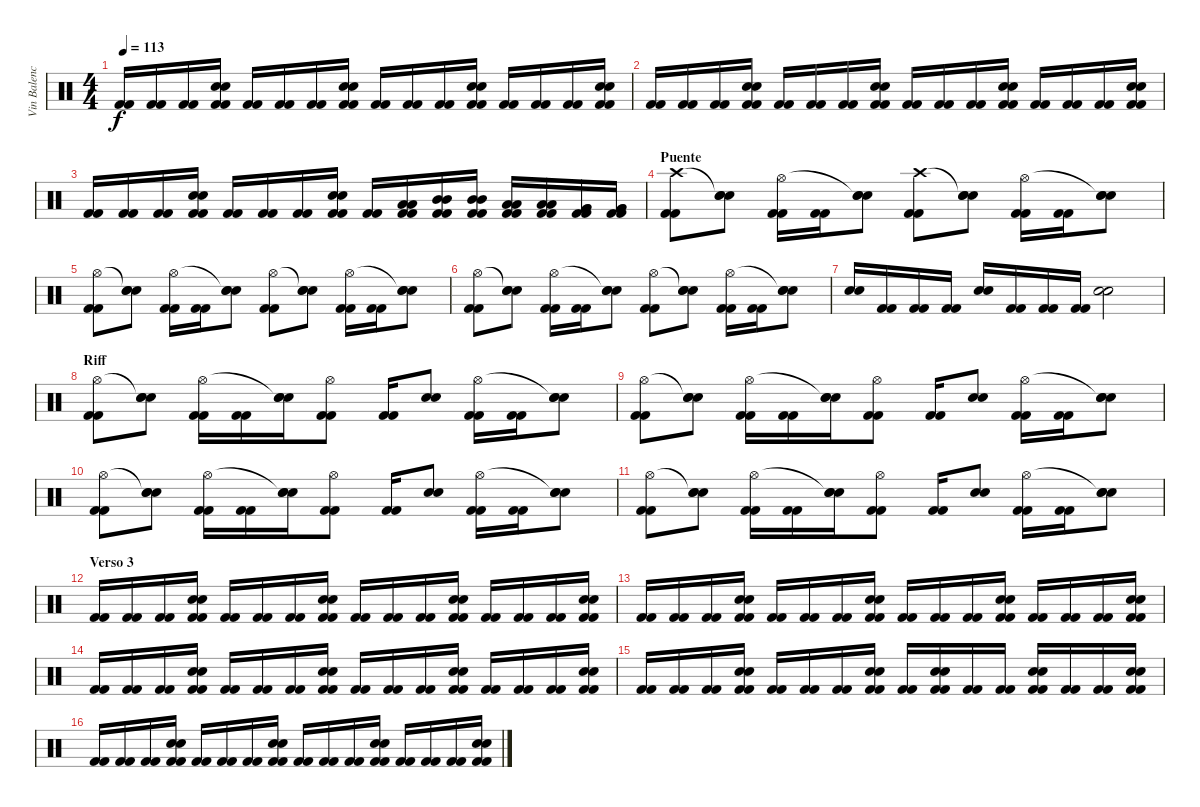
\track ("Vin Balencia (bateria)" "Vin Balenc") {instrument percussion}
\staff {score}
\articulation defaults
\ts (4 4)
\tempo 113
\clef neutral
\ks c
("Kick (hit) 2" "Kick (hit) 2").16{dy f} ("Kick (hit) 2" "Kick (hit) 2").16 ("Kick (hit) 2" "Kick (hit) 2").16 ("Electric Snare (hit)" "Electric Snare (hit)" "Kick (hit) 2" "Kick (hit) 2").16 ("Kick (hit) 2" "Kick (hit) 2").16 ("Kick (hit) 2" "Kick (hit) 2").16 ("Kick (hit) 2" "Kick (hit) 2").16 ("Electric Snare (hit)" "Electric Snare (hit)" "Kick (hit) 2" "Kick (hit) 2").16 ("Kick (hit) 2" "Kick (hit) 2").16 ("Kick (hit) 2" "Kick (hit) 2").16 ("Kick (hit) 2" "Kick (hit) 2").16 ("Electric Snare (hit)" "Electric Snare (hit)" "Kick (hit) 2" "Kick (hit) 2").16 ("Kick (hit) 2" "Kick (hit) 2").16 ("Kick (hit) 2" "Kick (hit) 2").16 ("Kick (hit) 2" "Kick (hit) 2").16 ("Electric Snare (hit)" "Electric Snare (hit)" "Kick (hit) 2" "Kick (hit) 2").16 |
("Kick (hit) 2" "Kick (hit) 2").16 ("Kick (hit) 2" "Kick (hit) 2").16 ("Kick (hit) 2" "Kick (hit) 2").16 ("Electric Snare (hit)" "Electric Snare (hit)" "Kick (hit) 2" "Kick (hit) 2").16 ("Kick (hit) 2" "Kick (hit) 2").16 ("Kick (hit) 2" "Kick (hit) 2").16 ("Kick (hit) 2" "Kick (hit) 2").16 ("Electric Snare (hit)" "Electric Snare (hit)" "Kick (hit) 2" "Kick (hit) 2").16 ("Kick (hit) 2" "Kick (hit) 2").16 ("Kick (hit) 2" "Kick (hit) 2").16 ("Kick (hit) 2" "Kick (hit) 2").16 ("Electric Snare (hit)" "Electric Snare (hit)" "Kick (hit) 2" "Kick (hit) 2").16 ("Kick (hit) 2" "Kick (hit) 2").16 ("Kick (hit) 2" "Kick (hit) 2").16 ("Kick (hit) 2" "Kick (hit) 2").16 ("Electric Snare (hit)" "Electric Snare (hit)" "Kick (hit) 2" "Kick (hit) 2").16 |
("Kick (hit) 2" "Kick (hit) 2").16 ("Kick (hit) 2" "Kick (hit) 2").16 ("Kick (hit) 2" "Kick (hit) 2").16 ("Electric Snare (hit)" "Electric Snare (hit)" "Kick (hit) 2" "Kick (hit) 2").16 ("Kick (hit) 2" "Kick (hit) 2").16 ("Kick (hit) 2" "Kick (hit) 2").16 ("Kick (hit) 2" "Kick (hit) 2").16 ("Electric Snare (hit)" "Electric Snare (hit)" "Kick (hit) 2" "Kick (hit) 2").16 ("Kick (hit) 2" "Kick (hit) 2").16 ("Low Floor Tom (hit)" "Low Floor Tom (hit)" "Kick (hit) 2" "Kick (hit) 2").16 ("Mid Tom (hit)" "Mid Tom (hit)" "Kick (hit) 2" "Kick (hit) 2").16 ("Mid Tom (hit)" "Mid Tom (hit)" "Kick (hit) 2" "Kick (hit) 2").16 ("Low Tom (hit)" "Low Tom (hit)" "Kick (hit) 2" "Kick (hit) 2").16 ("Low Tom (hit)" "Low Tom (hit)" "Kick (hit) 2" "Kick (hit) 2").16 ("Very Low Tom (hit)" "Very Low Tom (hit)" "Kick (hit) 2" "Kick (hit) 2").16 ("Very Low Tom (hit)" "Very Low Tom (hit)" "Kick (hit) 2" "Kick (hit) 2").16 |
\section ("" "Puente")
("Kick (hit) 2" "Kick (hit) 2" "Crash high (hit)").8 ("Snare (hit) 2" "Snare (hit) 2" "Snare (hit)"{t}).8 ("Kick (hit) 2" "Kick (hit) 2" "Hi-Hat (open)").16 ("Kick (hit) 2" "Kick (hit) 2").16 ("Snare (hit) 2" "Snare (hit) 2" "Snare (hit)"{t}).8 ("Kick (hit) 2" "Kick (hit) 2" "Crash high (hit)").8 ("Snare (hit) 2" "Snare (hit) 2" "Snare (hit)"{t}).8 ("Kick (hit) 2" "Kick (hit) 2" "Hi-Hat (open)").16 ("Kick (hit) 2" "Kick (hit) 2").16 ("Snare (hit) 2" "Snare (hit) 2" "Snare (hit)"{t}).8 |
("Kick (hit) 2" "Kick (hit) 2" "Hi-Hat (open)").8 ("Snare (hit) 2" "Snare (hit) 2" "Snare (hit)"{t}).8 ("Kick (hit) 2" "Kick (hit) 2" "Hi-Hat (open)").16 ("Kick (hit) 2" "Kick (hit) 2").16 ("Snare (hit) 2" "Snare (hit) 2" "Snare (hit)"{t}).8 ("Kick (hit) 2" "Kick (hit) 2" "Hi-Hat (open)").8 ("Snare (hit) 2" "Snare (hit) 2" "Snare (hit)"{t}).8 ("Kick (hit) 2" "Kick (hit) 2" "Hi-Hat (open)").16 ("Kick (hit) 2" "Kick (hit) 2").16 ("Snare (hit) 2" "Snare (hit) 2" "Snare (hit)"{t}).8 |
("Kick (hit) 2" "Kick (hit) 2" "Hi-Hat (open)").8 ("Snare (hit) 2" "Snare (hit) 2" "Snare (hit)"{t}).8 ("Kick (hit) 2" "Kick (hit) 2" "Hi-Hat (open)").16 ("Kick (hit) 2" "Kick (hit) 2").16 ("Snare (hit) 2" "Snare (hit) 2" "Snare (hit)"{t}).8 ("Kick (hit) 2" "Kick (hit) 2" "Hi-Hat (open)").8 ("Snare (hit) 2" "Snare (hit) 2" "Snare (hit)"{t}).8 ("Kick (hit) 2" "Kick (hit) 2" "Hi-Hat (open)").16 ("Kick (hit) 2" "Kick (hit) 2").16 ("Snare (hit) 2" "Snare (hit) 2" "Snare (hit)"{t}).8 |
("Electric Snare (hit)" "Electric Snare (hit)").16 ("Kick (hit) 2" "Kick (hit) 2").16 ("Kick (hit) 2" "Kick (hit) 2").16 ("Kick (hit) 2" "Kick (hit) 2").16 ("Electric Snare (hit)" "Electric Snare (hit)").16 ("Kick (hit) 2" "Kick (hit) 2").16 ("Kick (hit) 2" "Kick (hit) 2").16 ("Kick (hit) 2" "Kick (hit) 2").16 ("Electric Snare (hit)" "Electric Snare (hit)").2 |
\section ("" "Riff")
("Kick (hit) 2" "Kick (hit) 2" "Hi-Hat (open)").8 ("Snare (hit) 2" "Snare (hit) 2" "Snare (hit)"{t}).8 ("Kick (hit) 2" "Kick (hit) 2" "Hi-Hat (open)").16 ("Kick (hit) 2" "Kick (hit) 2").16 ("Snare (hit) 2" "Snare (hit) 2" "Snare (hit)"{t}).16 ("Kick (hit) 2" "Kick (hit) 2" "Hi-Hat (open)").8 ("Kick (hit) 2" "Kick (hit) 2").16 ("Snare (hit) 2" "Snare (hit) 2").8 ("Kick (hit) 2" "Kick (hit) 2" "Hi-Hat (open)").16 ("Kick (hit) 2" "Kick (hit) 2").16 ("Snare (hit) 2" "Snare (hit) 2" "Snare (hit)"{t}).8 |
("Kick (hit) 2" "Kick (hit) 2" "Hi-Hat (open)").8 ("Snare (hit) 2" "Snare (hit) 2" "Snare (hit)"{t}).8 ("Kick (hit) 2" "Kick (hit) 2" "Hi-Hat (open)").16 ("Kick (hit) 2" "Kick (hit) 2").16 ("Snare (hit) 2" "Snare (hit) 2" "Snare (hit)"{t}).16 ("Kick (hit) 2" "Kick (hit) 2" "Hi-Hat (open)").8 ("Kick (hit) 2" "Kick (hit) 2").16 ("Snare (hit) 2" "Snare (hit) 2").8 ("Kick (hit) 2" "Kick (hit) 2" "Hi-Hat (open)").16 ("Kick (hit) 2" "Kick (hit) 2").16 ("Snare (hit) 2" "Snare (hit) 2" "Snare (hit)"{t}).8 |
("Kick (hit) 2" "Kick (hit) 2" "Hi-Hat (open)").8 ("Snare (hit) 2" "Snare (hit) 2" "Snare (hit)"{t}).8 ("Kick (hit) 2" "Kick (hit) 2" "Hi-Hat (open)").16 ("Kick (hit) 2" "Kick (hit) 2").16 ("Snare (hit) 2" "Snare (hit) 2" "Snare (hit)"{t}).16 ("Kick (hit) 2" "Kick (hit) 2" "Hi-Hat (open)").8 ("Kick (hit) 2" "Kick (hit) 2").16 ("Snare (hit) 2" "Snare (hit) 2").8 ("Kick (hit) 2" "Kick (hit) 2" "Hi-Hat (open)").16 ("Kick (hit) 2" "Kick (hit) 2").16 ("Snare (hit) 2" "Snare (hit) 2" "Snare (hit)"{t}).8 |
("Kick (hit) 2" "Kick (hit) 2" "Hi-Hat (open)").8 ("Snare (hit) 2" "Snare (hit) 2" "Snare (hit)"{t}).8 ("Kick (hit) 2" "Kick (hit) 2" "Hi-Hat (open)").16 ("Kick (hit) 2" "Kick (hit) 2").16 ("Snare (hit) 2" "Snare (hit) 2" "Snare (hit)"{t}).16 ("Kick (hit) 2" "Kick (hit) 2" "Hi-Hat (open)").8 ("Kick (hit) 2" "Kick (hit) 2").16 ("Snare (hit) 2" "Snare (hit) 2").8 ("Kick (hit) 2" "Kick (hit) 2" "Hi-Hat (open)").16 ("Kick (hit) 2" "Kick (hit) 2").16 ("Snare (hit) 2" "Snare (hit) 2" "Snare (hit)"{t}).8 |
\section ("" "Verso 3")
("Kick (hit) 2" "Kick (hit) 2").16 ("Kick (hit) 2" "Kick (hit) 2").16 ("Kick (hit) 2" "Kick (hit) 2").16 ("Electric Snare (hit)" "Electric Snare (hit)" "Kick (hit) 2" "Kick (hit) 2").16 ("Kick (hit) 2" "Kick (hit) 2").16 ("Kick (hit) 2" "Kick (hit) 2").16 ("Kick (hit) 2" "Kick (hit) 2").16 ("Electric Snare (hit)" "Electric Snare (hit)" "Kick (hit) 2" "Kick (hit) 2").16 ("Kick (hit) 2" "Kick (hit) 2").16 ("Kick (hit) 2" "Kick (hit) 2").16 ("Kick (hit) 2" "Kick (hit) 2").16 ("Electric Snare (hit)" "Electric Snare (hit)" "Kick (hit) 2" "Kick (hit) 2").16 ("Kick (hit) 2" "Kick (hit) 2").16 ("Kick (hit) 2" "Kick (hit) 2").16 ("Kick (hit) 2" "Kick (hit) 2").16 ("Electric Snare (hit)" "Electric Snare (hit)" "Kick (hit) 2" "Kick (hit) 2").16 |
("Kick (hit) 2" "Kick (hit) 2").16 ("Kick (hit) 2" "Kick (hit) 2").16 ("Kick (hit) 2" "Kick (hit) 2").16 ("Electric Snare (hit)" "Electric Snare (hit)" "Kick (hit) 2" "Kick (hit) 2").16 ("Kick (hit) 2" "Kick (hit) 2").16 ("Kick (hit) 2" "Kick (hit) 2").16 ("Kick (hit) 2" "Kick (hit) 2").16 ("Electric Snare (hit)" "Electric Snare (hit)" "Kick (hit) 2" "Kick (hit) 2").16 ("Kick (hit) 2" "Kick (hit) 2").16 ("Kick (hit) 2" "Kick (hit) 2").16 ("Kick (hit) 2" "Kick (hit) 2").16 ("Electric Snare (hit)" "Electric Snare (hit)" "Kick (hit) 2" "Kick (hit) 2").16 ("Kick (hit) 2" "Kick (hit) 2").16 ("Kick (hit) 2" "Kick (hit) 2").16 ("Kick (hit) 2" "Kick (hit) 2").16 ("Electric Snare (hit)" "Electric Snare (hit)" "Kick (hit) 2" "Kick (hit) 2").16 |
("Kick (hit) 2" "Kick (hit) 2").16 ("Kick (hit) 2" "Kick (hit) 2").16 ("Kick (hit) 2" "Kick (hit) 2").16 ("Electric Snare (hit)" "Electric Snare (hit)" "Kick (hit) 2" "Kick (hit) 2").16 ("Kick (hit) 2" "Kick (hit) 2").16 ("Kick (hit) 2" "Kick (hit) 2").16 ("Kick (hit) 2" "Kick (hit) 2").16 ("Electric Snare (hit)" "Electric Snare (hit)" "Kick (hit) 2" "Kick (hit) 2").16 ("Kick (hit) 2" "Kick (hit) 2").16 ("Kick (hit) 2" "Kick (hit) 2").16 ("Kick (hit) 2" "Kick (hit) 2").16 ("Electric Snare (hit)" "Electric Snare (hit)" "Kick (hit) 2" "Kick (hit) 2").16 ("Kick (hit) 2" "Kick (hit) 2").16 ("Kick (hit) 2" "Kick (hit) 2").16 ("Kick (hit) 2" "Kick (hit) 2").16 ("Electric Snare (hit)" "Electric Snare (hit)" "Kick (hit) 2" "Kick (hit) 2").16 |
("Kick (hit) 2" "Kick (hit) 2").16 ("Kick (hit) 2" "Kick (hit) 2").16 ("Kick (hit) 2" "Kick (hit) 2").16 ("Electric Snare (hit)" "Electric Snare (hit)" "Kick (hit) 2" "Kick (hit) 2").16 ("Kick (hit) 2" "Kick (hit) 2").16 ("Kick (hit) 2" "Kick (hit) 2").16 ("Kick (hit) 2" "Kick (hit) 2").16 ("Electric Snare (hit)" "Electric Snare (hit)" "Kick (hit) 2" "Kick (hit) 2").16 ("Kick (hit) 2" "Kick (hit) 2").16 ("Electric Snare (hit)" "Electric Snare (hit)" "Kick (hit) 2" "Kick (hit) 2").16 ("Kick (hit) 2" "Kick (hit) 2").16 ("Kick (hit) 2" "Kick (hit) 2").16 ("Electric Snare (hit)" "Electric Snare (hit)" "Kick (hit) 2" "Kick (hit) 2").16 ("Kick (hit) 2" "Kick (hit) 2").16 ("Kick (hit) 2" "Kick (hit) 2").16 ("Electric Snare (hit)" "Electric Snare (hit)" "Kick (hit) 2" "Kick (hit) 2").16 |
("Kick (hit) 2" "Kick (hit) 2").16 ("Kick (hit) 2" "Kick (hit) 2").16 ("Kick (hit) 2" "Kick (hit) 2").16 ("Electric Snare (hit)" "Electric Snare (hit)" "Kick (hit) 2" "Kick (hit) 2").16 ("Kick (hit) 2" "Kick (hit) 2").16 ("Kick (hit) 2" "Kick (hit) 2").16 ("Kick (hit) 2" "Kick (hit) 2").16 ("Electric Snare (hit)" "Electric Snare (hit)" "Kick (hit) 2" "Kick (hit) 2").16 ("Kick (hit) 2" "Kick (hit) 2").16 ("Kick (hit) 2" "Kick (hit) 2").16 ("Kick (hit) 2" "Kick (hit) 2").16 ("Electric Snare (hit)" "Electric Snare (hit)" "Kick (hit) 2" "Kick (hit) 2").16 ("Kick (hit) 2" "Kick (hit) 2").16 ("Kick (hit) 2" "Kick (hit) 2").16 ("Kick (hit) 2" "Kick (hit) 2").16 ("Electric Snare (hit)" "Electric Snare (hit)" "Kick (hit) 2" "Kick (hit) 2").16
